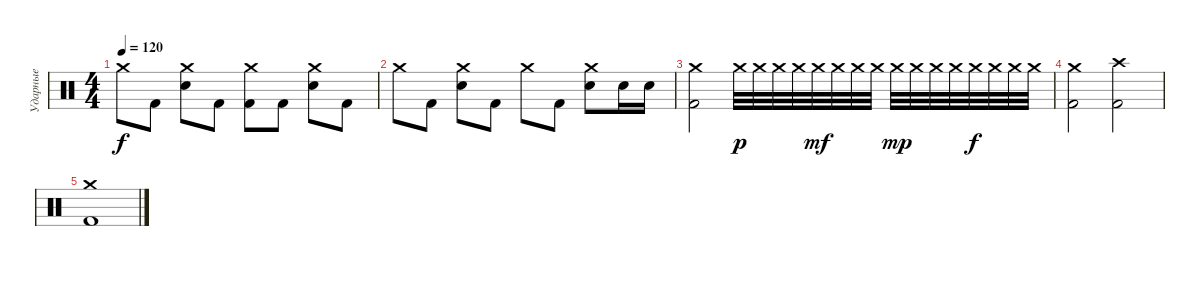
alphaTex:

\track ("Ударные" "Ударные") {instrument percussion}
\staff {score}
\articulation defaults
\ts (4 4)
\tempo 120
\clef neutral
\ks c "Crash medium (hit)".8{dy f} "Kick (hit) 2".8
("Crash medium (hit)" "Electric Snare (hit)").8 "Kick (hit) 2".8 ("Crash medium (hit)" "Kick (hit) 2").8 "Kick (hit) 2".8 ("Crash medium (hit)" "Electric Snare (hit)").8 "Kick (hit) 2".8 |
"Crash medium (hit)".8 "Kick (hit) 2".8 ("Crash medium (hit)" "Electric Snare (hit)").8 "Kick (hit) 2".8 "Crash medium (hit)".8 "Kick (hit) 2".8 ("Crash medium (hit)" "Electric Snare (hit)").8 "Electric Snare (hit)".16 "Electric Snare (hit)".16 |
("Crash medium (hit)" "Kick (hit) 2").2 "Crash medium (hit)".32{dy p} "Crash medium (hit)".32 "Crash medium (hit)".32 "Crash medium (hit)".32 "Crash medium (hit)".32{dy mf} "Crash medium (hit)".32 "Crash medium (hit)".32 "Crash medium (hit)".32 "Crash medium (hit)".32{dy mp} "Crash medium (hit)".32 "Crash medium (hit)".32 "Crash medium (hit)".32 "Crash medium (hit)".32{dy f} "Crash medium (hit)".32 "Crash medium (hit)".32 "Crash medium (hit)".32 |
("Crash medium (hit)" "Kick (hit) 2").2 ("Crash high (hit)" "Kick (hit) 2").2 |
("Crash medium (hit)" "Kick (hit) 2").1
